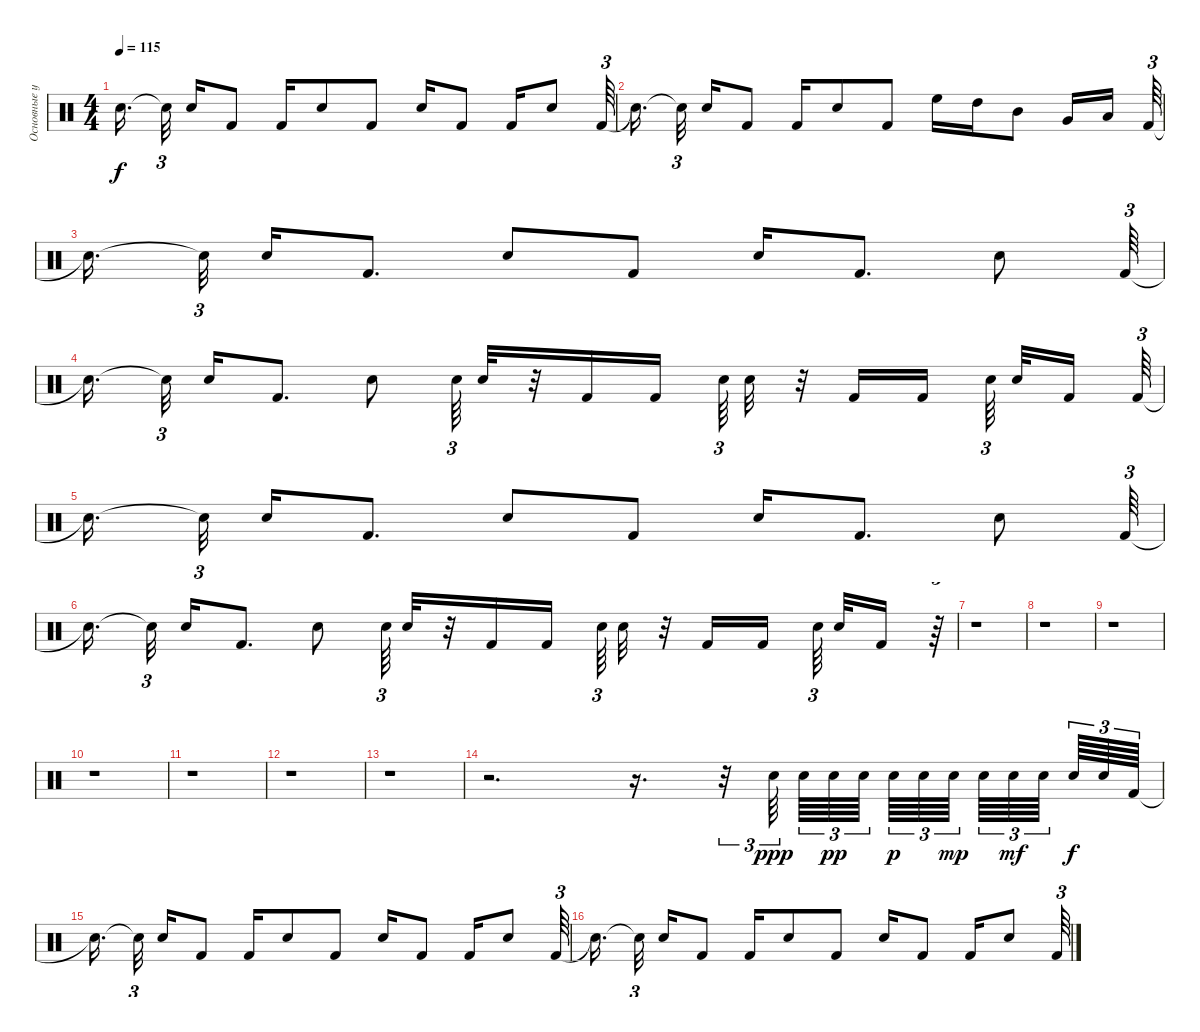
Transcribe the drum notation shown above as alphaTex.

\track ("Основные ударные" "Основные у") {instrument percussion}
\staff {score}
\articulation defaults
\ts (4 4)
\tempo 115
\clef neutral
\ks c "Snare (hit)"{t}.16{d dy f beam splitsecondary} "Snare (hit)"{t}.32{tu (3 2) beam splitsecondary} "Electric Snare (hit)".16 "Kick (hit) 2".8 "Kick (hit) 2".16 "Electric Snare (hit)".8 "Kick (hit) 2".8 "Electric Snare (hit)".16 "Kick (hit) 2".8 "Kick (hit) 2".16 "Electric Snare (hit)".8 "Kick (hit) 2".64{tu (3 2)}
|
"Snare (hit)"{t}.16{d beam splitsecondary} "Snare (hit)"{t}.32{tu (3 2) beam splitsecondary} "Electric Snare (hit)".16 "Kick (hit) 2".8 "Kick (hit) 2".16 "Electric Snare (hit)".8 "Kick (hit) 2".8 "High Floor Tom (hit)".16 "High Tom (hit)".16 "Mid Tom (hit)".8 "Very Low Tom (hit)".16 "Low Floor Tom (hit)".16{beam splitsecondary} "Kick (hit) 2".64{tu (3 2)} |
"Snare (hit)"{t}.16{d beam splitsecondary} "Snare (hit)"{t}.32{tu (3 2) beam splitsecondary} "Electric Snare (hit)".16 "Kick (hit) 2".8{d} "Electric Snare (hit)".8 "Kick (hit) 2".8 "Electric Snare (hit)".16 "Kick (hit) 2".8{d} "Electric Snare (hit)".8 "Kick (hit) 2".64{tu (3 2)} |
"Snare (hit)"{t}.16{d beam splitsecondary} "Snare (hit)"{t}.32{tu (3 2) beam splitsecondary} "Electric Snare (hit)".16 "Kick (hit) 2".8{d} "Electric Snare (hit)".8 "Electric Snare (hit)".64{tu (3 2)} "Electric Snare (hit)".32 r.32 "Kick (hit) 2".16 "Kick (hit) 2".16{beam splitsecondary} "Electric Snare (hit)".64{tu (3 2)} "Electric Snare (hit)".32 r.32 "Kick (hit) 2".16 "Kick (hit) 2".16{beam splitsecondary} "Electric Snare (hit)".64{tu (3 2) beam splitsecondary} "Electric Snare (hit)".32 "Kick (hit) 2".16{beam splitsecondary} "Kick (hit) 2".64{tu (3 2)} |
"Snare (hit)"{t}.16{d beam splitsecondary} "Snare (hit)"{t}.32{tu (3 2) beam splitsecondary} "Electric Snare (hit)".16 "Kick (hit) 2".8{d} "Electric Snare (hit)".8 "Kick (hit) 2".8 "Electric Snare (hit)".16 "Kick (hit) 2".8{d} "Electric Snare (hit)".8 "Kick (hit) 2".64{tu (3 2)} |
"Snare (hit)"{t}.16{d beam splitsecondary} "Snare (hit)"{t}.32{tu (3 2) beam splitsecondary} "Electric Snare (hit)".16 "Kick (hit) 2".8{d} "Electric Snare (hit)".8 "Electric Snare (hit)".64{tu (3 2)} "Electric Snare (hit)".32 r.32 "Kick (hit) 2".16 "Kick (hit) 2".16{beam splitsecondary} "Electric Snare (hit)".64{tu (3 2)} "Electric Snare (hit)".32 r.32 "Kick (hit) 2".16 "Kick (hit) 2".16{beam splitsecondary} "Electric Snare (hit)".64{tu (3 2) beam splitsecondary} "Electric Snare (hit)".32 "Kick (hit) 2".16 r.64{tu (3 2)} |
r.1 |
r.1 |
r.1 |
r.1 |
r.1 |
r.1 |
r.1 |
r.2{d} r.16{d} r.32{tu (3 2)} "Electric Snare (hit)".64{tu (3 2) dy ppp beam splitsecondary} "Electric Snare (hit)".64{tu (3 2)} "Electric Snare (hit)".64{tu (3 2) dy pp} "Electric Snare (hit)".64{tu (3 2) beam splitsecondary} "Electric Snare (hit)".64{tu (3 2) dy p} "Electric Snare (hit)".64{tu (3 2)} "Electric Snare (hit)".64{tu (3 2) dy mp beam splitsecondary} "Electric Snare (hit)".64{tu (3 2)} "Electric Snare (hit)".64{tu (3 2) dy mf} "Electric Snare (hit)".64{tu (3 2) beam splitsecondary} "Electric Snare (hit)".64{tu (3 2) dy f} "Electric Snare (hit)".64{tu (3 2)} "Kick (hit) 2".64{tu (3 2)} |
"Snare (hit)"{t}.16{d beam splitsecondary} "Snare (hit)"{t}.32{tu (3 2) beam splitsecondary} "Electric Snare (hit)".16 "Kick (hit) 2".8 "Kick (hit) 2".16 "Electric Snare (hit)".8 "Kick (hit) 2".8 "Electric Snare (hit)".16 "Kick (hit) 2".8 "Kick (hit) 2".16 "Electric Snare (hit)".8 "Kick (hit) 2".64{tu (3 2)} |
"Snare (hit)"{t}.16{d beam splitsecondary} "Snare (hit)"{t}.32{tu (3 2) beam splitsecondary} "Electric Snare (hit)".16 "Kick (hit) 2".8 "Kick (hit) 2".16 "Electric Snare (hit)".8 "Kick (hit) 2".8 "Electric Snare (hit)".16 "Kick (hit) 2".8 "Kick (hit) 2".16 "Electric Snare (hit)".8 "Kick (hit) 2".64{tu (3 2)}
